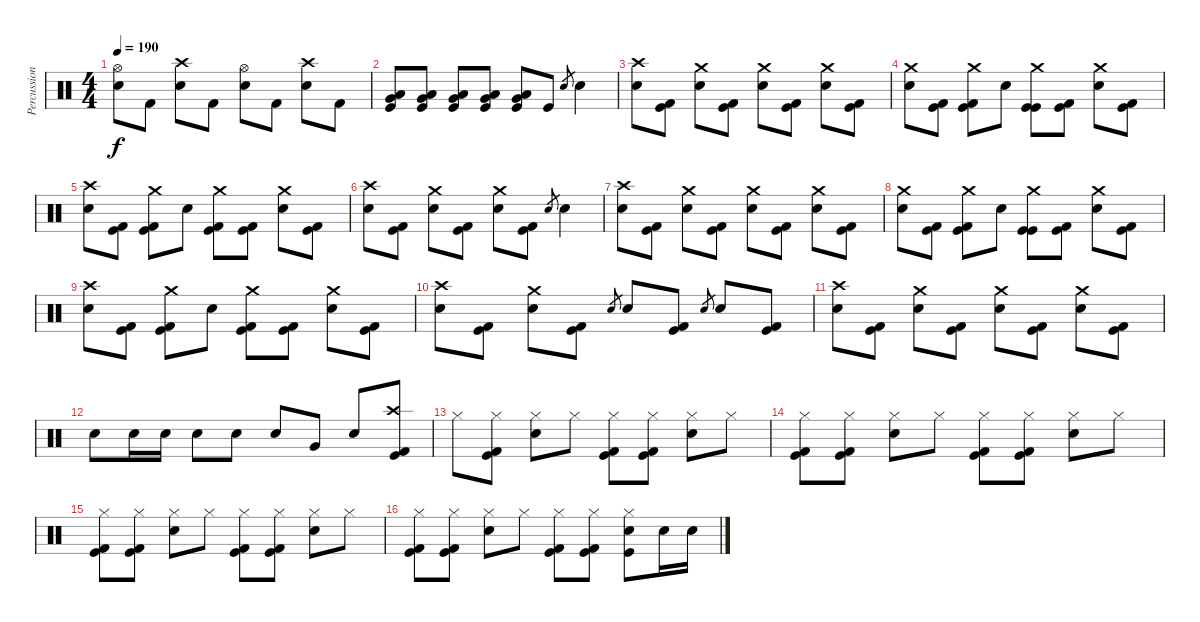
\track ("Percussions" "Percussion") {instrument percussion}
\staff {score}
\articulation defaults
\ts (4 4)
\tempo 190
\clef neutral
\ks c
("Hi-Hat (open)" "Electric Snare (hit)").8{dy f} "Kick (hit) 2".8 ("Crash high (hit)" "Electric Snare (hit)").8 "Kick (hit) 2".8 ("Hi-Hat (open)" "Electric Snare (hit)").8 "Kick (hit) 2".8 ("Crash high (hit)" "Electric Snare (hit)").8 "Kick (hit) 2".8 |
("Very Low Tom (hit)" "Low Floor Tom (hit)" "Kick (hit)").8 ("Very Low Tom (hit)" "Low Floor Tom (hit)" "Kick (hit)").8 ("Very Low Tom (hit)" "Low Floor Tom (hit)" "Kick (hit)").8 ("Very Low Tom (hit)" "Low Floor Tom (hit)" "Kick (hit)").8 ("Very Low Tom (hit)" "Low Floor Tom (hit)" "Kick (hit)").8 "Kick (hit)".8 "Electric Snare (hit)".8{gr} "Electric Snare (hit)".4 |
("Crash high (hit)" "Electric Snare (hit)").8 ("Kick (hit)" "Kick (hit) 2").8 ("Crash medium (hit)" "Electric Snare (hit)").8 ("Kick (hit)" "Kick (hit) 2").8 ("Crash medium (hit)" "Electric Snare (hit)").8 ("Kick (hit)" "Kick (hit) 2").8 ("Crash medium (hit)" "Electric Snare (hit)").8 ("Kick (hit)" "Kick (hit) 2").8 |
("Crash medium (hit)" "Electric Snare (hit)").8 ("Kick (hit)" "Kick (hit) 2").8 ("Crash medium (hit)" "Kick (hit)" "Kick (hit) 2").8 "Electric Snare (hit)".8 ("Crash medium (hit)" "Kick (hit)" "Kick (hit)").8 ("Kick (hit)" "Kick (hit) 2").8 ("Crash medium (hit)" "Electric Snare (hit)").8 ("Kick (hit)" "Kick (hit) 2").8 |
("Crash high (hit)" "Electric Snare (hit)").8 ("Kick (hit)" "Kick (hit) 2").8 ("Crash medium (hit)" "Kick (hit)" "Kick (hit) 2").8 "Electric Snare (hit)".8 ("Crash medium (hit)" "Kick (hit)" "Kick (hit) 2").8 ("Kick (hit)" "Kick (hit) 2").8 ("Crash medium (hit)" "Electric Snare (hit)").8 ("Kick (hit)" "Kick (hit) 2").8 |
("Crash high (hit)" "Electric Snare (hit)").8 ("Kick (hit)" "Kick (hit) 2").8 ("Crash medium (hit)" "Electric Snare (hit)").8 ("Kick (hit)" "Kick (hit) 2").8 ("Crash medium (hit)" "Electric Snare (hit)").8 ("Kick (hit)" "Kick (hit) 2").8 "Electric Snare (hit)".8{gr} "Electric Snare (hit)".4 |
("Crash high (hit)" "Electric Snare (hit)").8 ("Kick (hit)" "Kick (hit) 2").8 ("Crash medium (hit)" "Electric Snare (hit)").8 ("Kick (hit)" "Kick (hit) 2").8 ("Crash medium (hit)" "Electric Snare (hit)").8 ("Kick (hit)" "Kick (hit) 2").8 ("Crash medium (hit)" "Electric Snare (hit)").8 ("Kick (hit)" "Kick (hit) 2").8 |
("Crash medium (hit)" "Electric Snare (hit)").8 ("Kick (hit)" "Kick (hit) 2").8 ("Crash medium (hit)" "Kick (hit)" "Kick (hit) 2").8 "Electric Snare (hit)".8 ("Crash medium (hit)" "Kick (hit)" "Kick (hit)").8 ("Kick (hit)" "Kick (hit) 2").8 ("Crash medium (hit)" "Electric Snare (hit)").8 ("Kick (hit)" "Kick (hit) 2").8 |
("Crash high (hit)" "Electric Snare (hit)").8 ("Kick (hit)" "Kick (hit) 2").8 ("Crash medium (hit)" "Kick (hit)" "Kick (hit) 2").8 "Electric Snare (hit)".8 ("Crash medium (hit)" "Kick (hit)" "Kick (hit) 2").8 ("Kick (hit)" "Kick (hit) 2").8 ("Crash medium (hit)" "Electric Snare (hit)").8 ("Kick (hit)" "Kick (hit) 2").8 |
("Crash high (hit)" "Electric Snare (hit)").8 ("Kick (hit)" "Kick (hit) 2").8 ("Crash medium (hit)" "Electric Snare (hit)").8 ("Kick (hit)" "Kick (hit) 2").8 "Electric Snare (hit)".8{gr} "Electric Snare (hit)".8 ("Kick (hit)" "Kick (hit) 2").8 "Electric Snare (hit)".8{gr} "Electric Snare (hit)".8 ("Kick (hit)" "Kick (hit) 2").8 |
("Crash high (hit)" "Electric Snare (hit)").8 ("Kick (hit)" "Kick (hit) 2").8 ("Crash medium (hit)" "Electric Snare (hit)").8 ("Kick (hit)" "Kick (hit) 2").8 ("Crash medium (hit)" "Electric Snare (hit)").8 ("Kick (hit)" "Kick (hit) 2").8 ("Crash medium (hit)" "Electric Snare (hit)").8 ("Kick (hit)" "Kick (hit) 2").8 |
"Electric Snare (hit)".8 "Electric Snare (hit)".16 "Electric Snare (hit)".16 "Electric Snare (hit)".8 "Electric Snare (hit)".8 "Electric Snare (hit)".8 "Very Low Tom (hit)".8 "Electric Snare (hit)".8 ("Crash high (hit)" "Kick (hit)" "Kick (hit) 2").8 |
"Hi-Hat (closed)".8 ("Hi-Hat (closed)" "Kick (hit)" "Kick (hit) 2").8 ("Hi-Hat (closed)" "Electric Snare (hit)").8 "Hi-Hat (closed)".8 ("Hi-Hat (closed)" "Kick (hit)" "Kick (hit) 2").8 ("Hi-Hat (closed)" "Kick (hit)" "Kick (hit) 2").8 ("Hi-Hat (closed)" "Electric Snare (hit)").8 "Hi-Hat (closed)".8 |
("Hi-Hat (closed)" "Kick (hit)" "Kick (hit) 2").8 ("Hi-Hat (closed)" "Kick (hit)" "Kick (hit) 2").8 ("Hi-Hat (closed)" "Electric Snare (hit)").8 "Hi-Hat (closed)".8 ("Hi-Hat (closed)" "Kick (hit)" "Kick (hit) 2").8 ("Hi-Hat (closed)" "Kick (hit)" "Kick (hit) 2").8 ("Hi-Hat (closed)" "Electric Snare (hit)").8 "Hi-Hat (closed)".8 |
("Hi-Hat (closed)" "Kick (hit)" "Kick (hit) 2").8 ("Hi-Hat (closed)" "Kick (hit)" "Kick (hit) 2").8 ("Hi-Hat (closed)" "Electric Snare (hit)").8 "Hi-Hat (closed)".8 ("Hi-Hat (closed)" "Kick (hit)" "Kick (hit) 2").8 ("Hi-Hat (closed)" "Kick (hit)" "Kick (hit) 2").8 ("Hi-Hat (closed)" "Electric Snare (hit)").8 "Hi-Hat (closed)".8 |
("Hi-Hat (closed)" "Kick (hit)" "Kick (hit) 2").8 ("Hi-Hat (closed)" "Kick (hit)" "Kick (hit) 2").8 ("Hi-Hat (closed)" "Electric Snare (hit)").8 "Hi-Hat (closed)".8 ("Hi-Hat (closed)" "Kick (hit)" "Kick (hit) 2").8 ("Hi-Hat (closed)" "Kick (hit)" "Kick (hit) 2").8 ("Hi-Hat (closed)" "Kick (hit)" "Electric Snare (hit)").8 "Electric Snare (hit)".16 "Electric Snare (hit)".16
